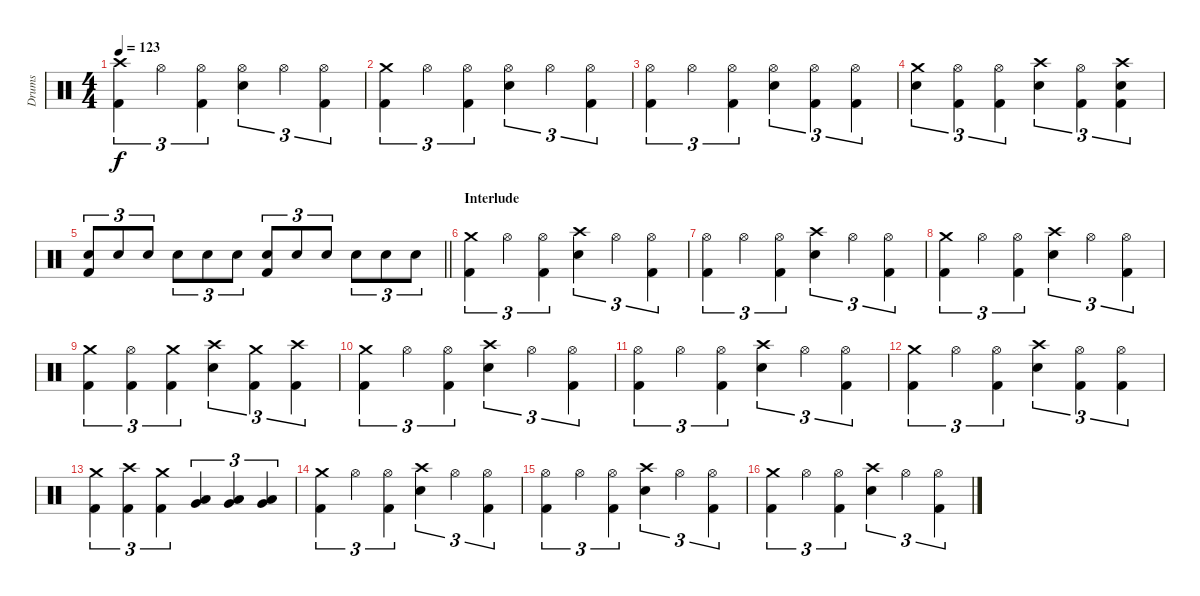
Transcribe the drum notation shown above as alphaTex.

\track ("Drums" "Drums") {instrument percussion}
\staff {score}
\articulation defaults
\ts (4 4)
\tempo 123
\clef neutral
\ks c
("Crash high (hit)" "Kick (hit) 2").4{tu (3 2) dy f} "Hi-Hat (open)".4{tu (3 2)} ("Hi-Hat (open)" "Kick (hit) 2").4{tu (3 2)} ("Hi-Hat (open)" "Electric Snare (hit)").4{tu (3 2)} "Hi-Hat (open)".4{tu (3 2)} ("Hi-Hat (open)" "Kick (hit) 2").4{tu (3 2)} |
("Crash medium (hit)" "Kick (hit) 2").4{tu (3 2)} "Hi-Hat (open)".4{tu (3 2)} ("Hi-Hat (open)" "Kick (hit) 2").4{tu (3 2)} ("Hi-Hat (open)" "Electric Snare (hit)").4{tu (3 2)} "Hi-Hat (open)".4{tu (3 2)} ("Hi-Hat (open)" "Kick (hit) 2").4{tu (3 2)} |
("Hi-Hat (open)" "Kick (hit) 2").4{tu (3 2)} "Hi-Hat (open)".4{tu (3 2)} ("Hi-Hat (open)" "Kick (hit) 2").4{tu (3 2)} ("Hi-Hat (open)" "Electric Snare (hit)").4{tu (3 2)} ("Hi-Hat (open)" "Kick (hit) 2").4{tu (3 2)} ("Hi-Hat (open)" "Kick (hit) 2").4{tu (3 2)} |
("Crash medium (hit)" "Electric Snare (hit)").4{tu (3 2)} ("Hi-Hat (open)" "Kick (hit) 2").4{tu (3 2)} ("Hi-Hat (open)" "Kick (hit) 2").4{tu (3 2)} ("Crash high (hit)" "Electric Snare (hit)").4{tu (3 2)} ("Hi-Hat (open)" "Kick (hit) 2").4{tu (3 2)} ("Crash high (hit)" "Electric Snare (hit)" "Kick (hit) 2").4{tu (3 2)} |
\barLineRight lightlight
("Electric Snare (hit)" "Kick (hit) 2").8{tu (3 2)} "Electric Snare (hit)".8{tu (3 2)} "Electric Snare (hit)".8{tu (3 2)} "Electric Snare (hit)".8{tu (3 2)} "Electric Snare (hit)".8{tu (3 2)} "Electric Snare (hit)".8{tu (3 2)} ("Electric Snare (hit)" "Kick (hit) 2").8{tu (3 2)} "Electric Snare (hit)".8{tu (3 2)} "Electric Snare (hit)".8{tu (3 2)} "Electric Snare (hit)".8{tu (3 2)} "Electric Snare (hit)".8{tu (3 2)} "Electric Snare (hit)".8{tu (3 2)} |
\section ("" "Interlude")
("Crash medium (hit)" "Kick (hit) 2").4{tu (3 2)} "Hi-Hat (open)".4{tu (3 2)} ("Hi-Hat (open)" "Kick (hit) 2").4{tu (3 2)} ("Crash high (hit)" "Electric Snare (hit)").4{tu (3 2)} "Hi-Hat (open)".4{tu (3 2)} ("Hi-Hat (open)" "Kick (hit) 2").4{tu (3 2)} |
("Hi-Hat (open)" "Kick (hit) 2").4{tu (3 2)} "Hi-Hat (open)".4{tu (3 2)} ("Hi-Hat (open)" "Kick (hit) 2").4{tu (3 2)} ("Crash high (hit)" "Electric Snare (hit)").4{tu (3 2)} "Hi-Hat (open)".4{tu (3 2)} ("Hi-Hat (open)" "Kick (hit) 2").4{tu (3 2)} |
("Crash medium (hit)" "Kick (hit) 2").4{tu (3 2)} "Hi-Hat (open)".4{tu (3 2)} ("Hi-Hat (open)" "Kick (hit) 2").4{tu (3 2)} ("Crash high (hit)" "Electric Snare (hit)").4{tu (3 2)} "Hi-Hat (open)".4{tu (3 2)} ("Hi-Hat (open)" "Kick (hit) 2").4{tu (3 2)} |
("Crash medium (hit)" "Kick (hit) 2").4{tu (3 2)} ("Hi-Hat (open)" "Kick (hit) 2").4{tu (3 2)} ("Crash medium (hit)" "Kick (hit) 2").4{tu (3 2)} ("Crash high (hit)" "Electric Snare (hit)").4{tu (3 2)} ("Crash medium (hit)" "Kick (hit) 2").4{tu (3 2)} ("Crash high (hit)" "Kick (hit) 2").4{tu (3 2)} |
("Crash medium (hit)" "Kick (hit) 2").4{tu (3 2)} "Hi-Hat (open)".4{tu (3 2)} ("Hi-Hat (open)" "Kick (hit) 2").4{tu (3 2)} ("Crash high (hit)" "Electric Snare (hit)").4{tu (3 2)} "Hi-Hat (open)".4{tu (3 2)} ("Hi-Hat (open)" "Kick (hit) 2").4{tu (3 2)} |
("Hi-Hat (open)" "Kick (hit) 2").4{tu (3 2)} "Hi-Hat (open)".4{tu (3 2)} ("Hi-Hat (open)" "Kick (hit) 2").4{tu (3 2)} ("Crash high (hit)" "Electric Snare (hit)").4{tu (3 2)} "Hi-Hat (open)".4{tu (3 2)} ("Hi-Hat (open)" "Kick (hit) 2").4{tu (3 2)} |
("Crash medium (hit)" "Kick (hit) 2").4{tu (3 2)} "Hi-Hat (open)".4{tu (3 2)} ("Hi-Hat (open)" "Kick (hit) 2").4{tu (3 2)} ("Crash high (hit)" "Electric Snare (hit)").4{tu (3 2)} ("Hi-Hat (open)" "Kick (hit) 2").4{tu (3 2)} ("Hi-Hat (open)" "Kick (hit) 2").4{tu (3 2)} |
("Crash medium (hit)" "Kick (hit) 2").4{tu (3 2)} ("Crash high (hit)" "Kick (hit) 2").4{tu (3 2)} ("Crash medium (hit)" "Kick (hit) 2").4{tu (3 2)} ("Low Tom (hit)" "Very Low Tom (hit)").4{tu (3 2)} ("Low Tom (hit)" "Very Low Tom (hit)").4{tu (3 2)} ("Low Tom (hit)" "Very Low Tom (hit)").4{tu (3 2)} |
("Crash medium (hit)" "Kick (hit) 2").4{tu (3 2)} "Hi-Hat (open)".4{tu (3 2)} ("Hi-Hat (open)" "Kick (hit) 2").4{tu (3 2)} ("Crash high (hit)" "Electric Snare (hit)").4{tu (3 2)} "Hi-Hat (open)".4{tu (3 2)} ("Hi-Hat (open)" "Kick (hit) 2").4{tu (3 2)} |
("Hi-Hat (open)" "Kick (hit) 2").4{tu (3 2)} "Hi-Hat (open)".4{tu (3 2)} ("Hi-Hat (open)" "Kick (hit) 2").4{tu (3 2)} ("Crash high (hit)" "Electric Snare (hit)").4{tu (3 2)} "Hi-Hat (open)".4{tu (3 2)} ("Hi-Hat (open)" "Kick (hit) 2").4{tu (3 2)} |
("Crash medium (hit)" "Kick (hit) 2").4{tu (3 2)} "Hi-Hat (open)".4{tu (3 2)} ("Hi-Hat (open)" "Kick (hit) 2").4{tu (3 2)} ("Crash high (hit)" "Electric Snare (hit)").4{tu (3 2)} "Hi-Hat (open)".4{tu (3 2)} ("Hi-Hat (open)" "Kick (hit) 2").4{tu (3 2)}
